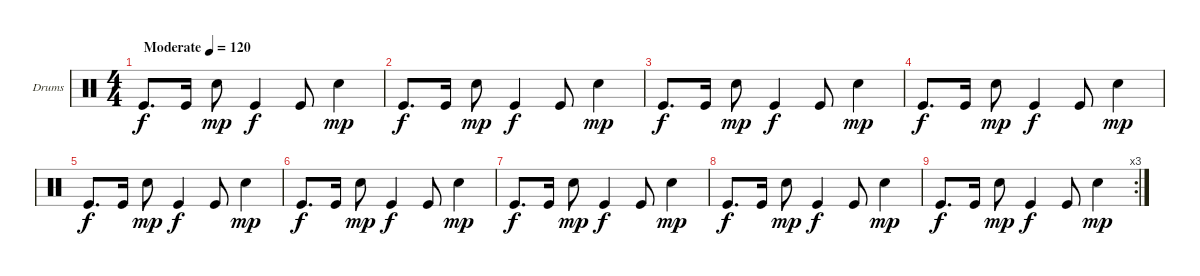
\bracketExtendMode groupsimilarinstruments
\firstSystemTrackNameOrientation horizontal
\otherSystemsTrackNameOrientation horizontal
\track ("Drumkit" "Drums") {instrument percussion}
\staff {score}
\articulation defaults
\ts (4 4)
\beaming (8 2 2 2 2)
\tempo (120 "Moderate")
\clef neutral
\ks c "Kick (hit)".8{d dy f} "Kick (hit)".16 "Snare (hit) 2".8{dy mp} "Kick (hit)".4{dy f} "Kick (hit)".8 "Snare (hit) 2".4{dy mp}
|
"Kick (hit)".8{d dy f} "Kick (hit)".16 "Snare (hit) 2".8{dy mp} "Kick (hit)".4{dy f} "Kick (hit)".8 "Snare (hit) 2".4{dy mp} |
"Kick (hit)".8{d dy f} "Kick (hit)".16 "Snare (hit) 2".8{dy mp} "Kick (hit)".4{dy f} "Kick (hit)".8 "Snare (hit) 2".4{dy mp} |
"Kick (hit)".8{d dy f} "Kick (hit)".16 "Snare (hit) 2".8{dy mp} "Kick (hit)".4{dy f} "Kick (hit)".8 "Snare (hit) 2".4{dy mp} |
"Kick (hit)".8{d dy f} "Kick (hit)".16 "Snare (hit) 2".8{dy mp} "Kick (hit)".4{dy f} "Kick (hit)".8 "Snare (hit) 2".4{dy mp} |
"Kick (hit)".8{d dy f} "Kick (hit)".16 "Snare (hit) 2".8{dy mp} "Kick (hit)".4{dy f} "Kick (hit)".8 "Snare (hit) 2".4{dy mp} |
"Kick (hit)".8{d dy f} "Kick (hit)".16 "Snare (hit) 2".8{dy mp} "Kick (hit)".4{dy f} "Kick (hit)".8 "Snare (hit) 2".4{dy mp} |
"Kick (hit)".8{d dy f} "Kick (hit)".16 "Snare (hit) 2".8{dy mp} "Kick (hit)".4{dy f} "Kick (hit)".8 "Snare (hit) 2".4{dy mp} |
\rc 3 "Kick (hit)".8{d dy f} "Kick (hit)".16 "Snare (hit) 2".8{dy mp} "Kick (hit)".4{dy f} "Kick (hit)".8 "Snare (hit) 2".4{dy mp}
